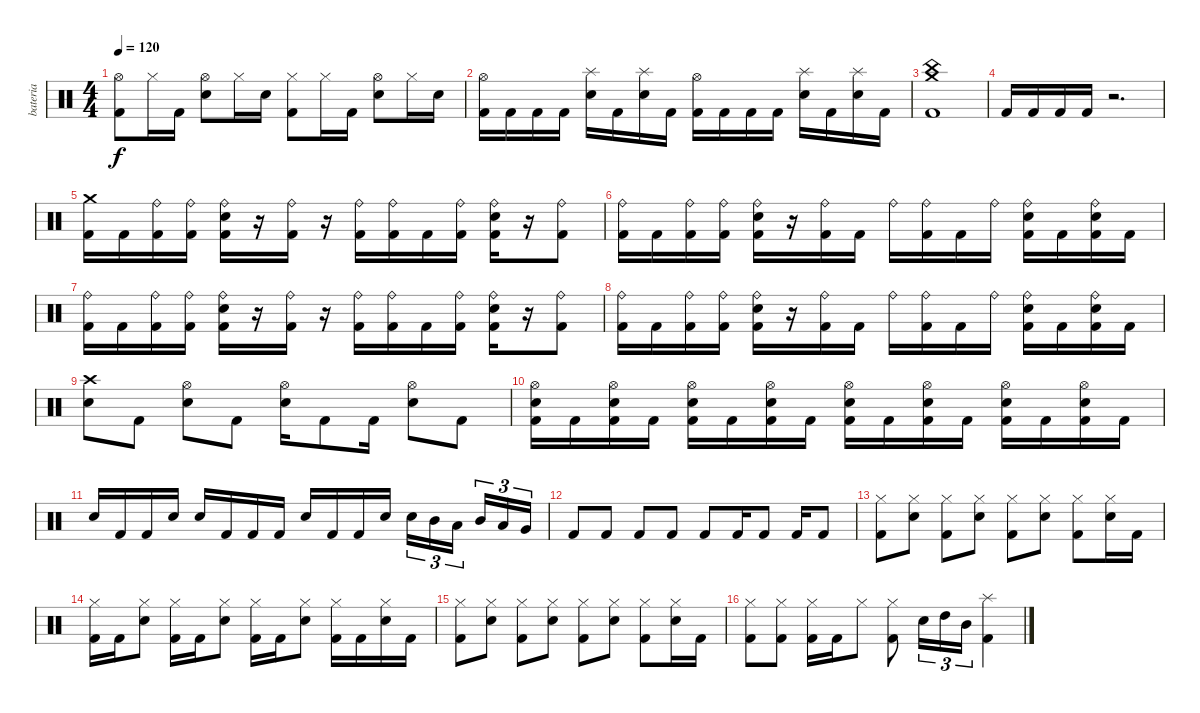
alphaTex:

\track ("bateria" "bateria") {instrument percussion}
\staff {score}
\articulation defaults
\ts (4 4)
\tempo 120
\clef neutral
\ks c
("Hi-Hat (open)" "Kick (hit) 2").8{dy f} "Hi-Hat (closed)".16 "Kick (hit) 2".16 ("Hi-Hat (open)" "Electric Snare (hit)").8 "Hi-Hat (closed)".16 "Electric Snare (hit)".16 ("Hi-Hat (closed)" "Kick (hit) 2").8 "Hi-Hat (closed)".16 "Kick (hit) 2".16 ("Hi-Hat (open)" "Electric Snare (hit)").8 "Hi-Hat (closed)".16 "Electric Snare (hit)".16 |
("Hi-Hat (open)" "Kick (hit) 2").16 "Kick (hit) 2".16 "Kick (hit) 2".16 "Kick (hit) 2".16 ("Splash (hit)" "Electric Snare (hit)").16 "Kick (hit) 2".16 ("Splash (hit)" "Electric Snare (hit)").16 "Kick (hit) 2".16 ("Hi-Hat (open)" "Kick (hit) 2").16 "Kick (hit) 2".16 "Kick (hit) 2".16 "Kick (hit) 2".16 ("Splash (hit)" "Electric Snare (hit)").16 "Kick (hit) 2".16 ("Splash (hit)" "Electric Snare (hit)").16 "Kick (hit) 2".16 |
("Crash medium (hit)" "China (hit)" "Kick (hit) 2").1 |
"Kick (hit) 2".16 "Kick (hit) 2".16 "Kick (hit) 2".16 "Kick (hit) 2".16 r.2{d} |
("Crash medium (hit)" "Kick (hit) 2").16 "Kick (hit) 2".16 ("Ride (bell)" "Kick (hit) 2").16 ("Ride (bell)" "Kick (hit) 2").16 ("Ride (bell)" "Electric Snare (hit)" "Kick (hit) 2").16 r.16 ("Ride (bell)" "Kick (hit) 2").16 r.16 ("Ride (bell)" "Kick (hit) 2").16 ("Ride (bell)" "Kick (hit) 2").16 "Kick (hit) 2".16 ("Ride (bell)" "Kick (hit) 2").16 ("Ride (bell)" "Electric Snare (hit)" "Kick (hit) 2").16 r.16 ("Ride (bell)" "Kick (hit) 2").8 |
("Ride (bell)" "Kick (hit) 2").16 "Kick (hit) 2".16 ("Ride (bell)" "Kick (hit) 2").16 ("Ride (bell)" "Kick (hit) 2").16 ("Ride (bell)" "Electric Snare (hit)" "Kick (hit) 2").16 r.16 ("Ride (bell)" "Kick (hit) 2").16 "Kick (hit) 2".16 "Ride (bell)".16 ("Ride (bell)" "Kick (hit) 2").16 "Kick (hit) 2".16 "Ride (bell)".16 ("Ride (bell)" "Electric Snare (hit)" "Kick (hit) 2").16 "Kick (hit) 2".16 ("Ride (bell)" "Electric Snare (hit)" "Kick (hit) 2").16 "Kick (hit) 2".16 |
("Ride (bell)" "Kick (hit) 2").16 "Kick (hit) 2".16 ("Ride (bell)" "Kick (hit) 2").16 ("Ride (bell)" "Kick (hit) 2").16 ("Ride (bell)" "Electric Snare (hit)" "Kick (hit) 2").16 r.16 ("Ride (bell)" "Kick (hit) 2").16 r.16 ("Ride (bell)" "Kick (hit) 2").16 ("Ride (bell)" "Kick (hit) 2").16 "Kick (hit) 2".16 ("Ride (bell)" "Kick (hit) 2").16 ("Ride (bell)" "Electric Snare (hit)" "Kick (hit) 2").16 r.16 ("Ride (bell)" "Kick (hit) 2").8 |
("Ride (bell)" "Kick (hit) 2").16 "Kick (hit) 2".16 ("Ride (bell)" "Kick (hit) 2").16 ("Ride (bell)" "Kick (hit) 2").16 ("Ride (bell)" "Electric Snare (hit)" "Kick (hit) 2").16 r.16 ("Ride (bell)" "Kick (hit) 2").16 "Kick (hit) 2".16 "Ride (bell)".16 ("Ride (bell)" "Kick (hit) 2").16 "Kick (hit) 2".16 "Ride (bell)".16 ("Ride (bell)" "Electric Snare (hit)" "Kick (hit) 2").16 "Kick (hit) 2".16 ("Ride (bell)" "Electric Snare (hit)" "Kick (hit) 2").16 "Kick (hit) 2".16 |
("Crash high (hit)" "Electric Snare (hit)").8 "Kick (hit) 2".8 ("Hi-Hat (open)" "Electric Snare (hit)").8 "Kick (hit) 2".8 ("Hi-Hat (open)" "Electric Snare (hit)").16 "Kick (hit) 2".8 "Kick (hit) 2".16 ("Hi-Hat (open)" "Electric Snare (hit)").8 "Kick (hit) 2".8 |
("Hi-Hat (open)" "Electric Snare (hit)" "Kick (hit) 2").16 "Kick (hit) 2".16 ("Hi-Hat (open)" "Electric Snare (hit)" "Kick (hit) 2").16 "Kick (hit) 2".16 ("Hi-Hat (open)" "Electric Snare (hit)" "Kick (hit) 2").16 "Kick (hit) 2".16 ("Hi-Hat (open)" "Electric Snare (hit)" "Kick (hit) 2").16 "Kick (hit) 2".16 ("Hi-Hat (open)" "Electric Snare (hit)" "Kick (hit) 2").16 "Kick (hit) 2".16 ("Hi-Hat (open)" "Electric Snare (hit)" "Kick (hit) 2").16 "Kick (hit) 2".16 ("Hi-Hat (open)" "Electric Snare (hit)" "Kick (hit) 2").16 "Kick (hit) 2".16 ("Hi-Hat (open)" "Electric Snare (hit)" "Kick (hit) 2").16 "Kick (hit) 2".16 |
"Electric Snare (hit)".16 "Kick (hit) 2".16 "Kick (hit) 2".16 "Electric Snare (hit)".16 "Electric Snare (hit)".16 "Kick (hit) 2".16 "Kick (hit) 2".16 "Kick (hit) 2".16 "Electric Snare (hit)".16 "Kick (hit) 2".16 "Kick (hit) 2".16 "Electric Snare (hit)".16 "Electric Snare (hit)".16{tu (3 2)} "Mid Tom (hit)".16{tu (3 2)} "Low Tom (hit)".16{tu (3 2)} "Mid Tom (hit)".16{tu (3 2)} "Low Tom (hit)".16{tu (3 2)} "Very Low Tom (hit)".16{tu (3 2)} |
"Kick (hit) 2".8 "Kick (hit) 2".8 "Kick (hit) 2".8 "Kick (hit) 2".8 "Kick (hit) 2".8 "Kick (hit) 2".16 "Kick (hit) 2".8 "Kick (hit) 2".16 "Kick (hit) 2".8 |
("Hi-Hat (closed)" "Kick (hit) 2").8 ("Hi-Hat (closed)" "Electric Snare (hit)").8 ("Hi-Hat (closed)" "Kick (hit) 2").8 ("Hi-Hat (closed)" "Electric Snare (hit)").8 ("Hi-Hat (closed)" "Kick (hit) 2").8 ("Hi-Hat (closed)" "Electric Snare (hit)").8 ("Hi-Hat (closed)" "Kick (hit) 2").8 ("Hi-Hat (closed)" "Electric Snare (hit)").16 "Kick (hit) 2".16 |
("Hi-Hat (closed)" "Kick (hit) 2").16 "Kick (hit) 2".16 ("Hi-Hat (closed)" "Electric Snare (hit)").8 ("Hi-Hat (closed)" "Kick (hit) 2").16 "Kick (hit) 2".16 ("Hi-Hat (closed)" "Electric Snare (hit)").8 ("Hi-Hat (closed)" "Kick (hit) 2").16 "Kick (hit) 2".16 ("Hi-Hat (closed)" "Electric Snare (hit)").8 ("Hi-Hat (closed)" "Kick (hit) 2").16 "Kick (hit) 2".16 ("Hi-Hat (closed)" "Electric Snare (hit)").16 "Kick (hit) 2".16 |
("Hi-Hat (closed)" "Kick (hit) 2").8 ("Hi-Hat (closed)" "Electric Snare (hit)").8 ("Hi-Hat (closed)" "Kick (hit) 2").8 ("Hi-Hat (closed)" "Electric Snare (hit)").8 ("Hi-Hat (closed)" "Kick (hit) 2").8 ("Hi-Hat (closed)" "Electric Snare (hit)").8 ("Hi-Hat (closed)" "Kick (hit) 2").8 ("Hi-Hat (closed)" "Electric Snare (hit)").16 "Kick (hit) 2".16 |
("Hi-Hat (closed)" "Kick (hit) 2").8 ("Hi-Hat (closed)" "Kick (hit) 2").8 ("Hi-Hat (closed)" "Kick (hit) 2").16 "Kick (hit) 2".16 "Hi-Hat (closed)".8 ("Hi-Hat (closed)" "Kick (hit) 2").8 "Electric Snare (hit)".16{tu (3 2)} "High Tom (hit)".16{tu (3 2)} "Mid Tom (hit)".16{tu (3 2)} ("Splash (hit)" "Kick (hit) 2").4
